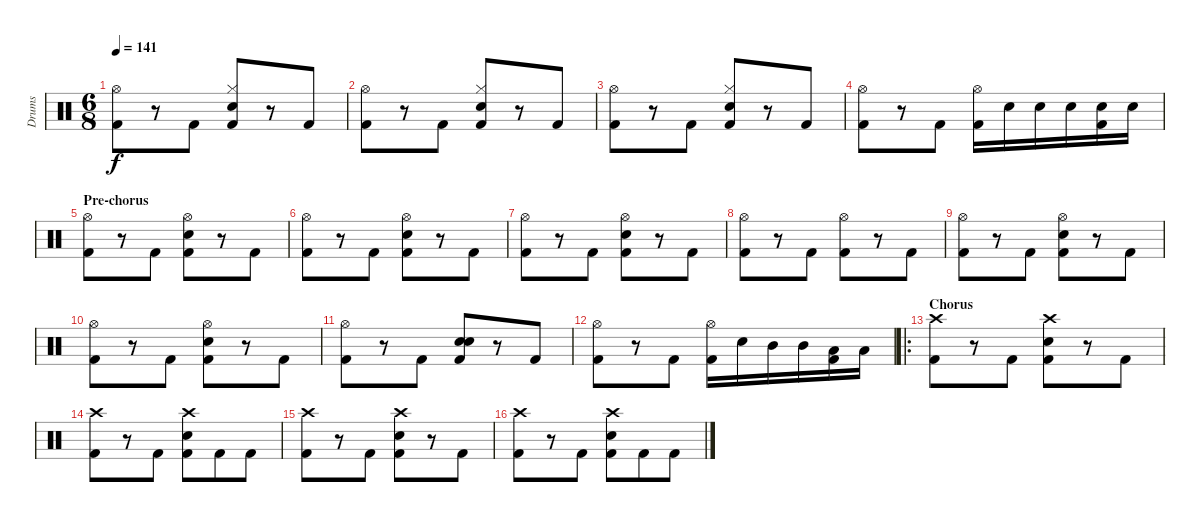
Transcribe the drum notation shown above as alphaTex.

\track ("Drums" "Drums") {instrument percussion}
\staff {score}
\articulation defaults
\ts (6 8)
\tempo 141
\clef neutral
\ks c
("Hi-Hat (open)" "Kick (hit) 2").8{dy f} r.8 "Kick (hit) 2".8 ("Hi-Hat (closed)" "Electric Snare (hit)" "Kick (hit) 2").8 r.8 "Kick (hit) 2".8 |
("Hi-Hat (open)" "Kick (hit) 2").8 r.8 "Kick (hit) 2".8 ("Hi-Hat (closed)" "Electric Snare (hit)" "Kick (hit) 2").8 r.8 "Kick (hit) 2".8 |
("Hi-Hat (open)" "Kick (hit) 2").8 r.8 "Kick (hit) 2".8 ("Hi-Hat (closed)" "Electric Snare (hit)" "Kick (hit) 2").8 r.8 "Kick (hit) 2".8 |
("Hi-Hat (open)" "Kick (hit) 2").8 r.8 "Kick (hit) 2".8 ("Hi-Hat (open)" "Kick (hit) 2").16 "Electric Snare (hit)".16 "Electric Snare (hit)".16 "Electric Snare (hit)".16 ("Electric Snare (hit)" "Kick (hit) 2").16 "Electric Snare (hit)".16 |
\section ("" "Pre-chorus")
("Hi-Hat (open)" "Kick (hit) 2").8 r.8 "Kick (hit) 2".8 ("Hi-Hat (open)" "Electric Snare (hit)" "Kick (hit) 2").8 r.8 "Kick (hit) 2".8 |
("Hi-Hat (open)" "Kick (hit) 2").8 r.8 "Kick (hit) 2".8 ("Hi-Hat (open)" "Electric Snare (hit)" "Kick (hit) 2").8 r.8 "Kick (hit) 2".8 |
("Hi-Hat (open)" "Kick (hit) 2").8 r.8 "Kick (hit) 2".8 ("Hi-Hat (open)" "Electric Snare (hit)" "Kick (hit) 2").8 r.8 "Kick (hit) 2".8 |
("Hi-Hat (open)" "Kick (hit) 2").8 r.8 "Kick (hit) 2".8 ("Hi-Hat (open)" "Kick (hit) 2").8 r.8 "Kick (hit) 2".8 |
("Hi-Hat (open)" "Kick (hit) 2").8 r.8 "Kick (hit) 2".8 ("Hi-Hat (open)" "Electric Snare (hit)" "Kick (hit) 2").8 r.8 "Kick (hit) 2".8 |
("Hi-Hat (open)" "Kick (hit) 2").8 r.8 "Kick (hit) 2".8 ("Hi-Hat (open)" "Electric Snare (hit)" "Kick (hit) 2").8 r.8 "Kick (hit) 2".8 |
("Hi-Hat (open)" "Kick (hit) 2").8 r.8 "Kick (hit) 2".8 ("Snare (hit)" "Electric Snare (hit)" "Kick (hit) 2").8 r.8 "Kick (hit) 2".8 |
("Hi-Hat (open)" "Kick (hit) 2").8 r.8 "Kick (hit) 2".8 ("Hi-Hat (open)" "Kick (hit) 2").16 "Electric Snare (hit)".16 "Mid Tom (hit)".16 "Mid Tom (hit)".16 ("Low Tom (hit)" "Kick (hit) 2").16 "Low Tom (hit)".16 |
\ro
\section ("" "Chorus")
("Crash high (hit)" "Kick (hit) 2").8 r.8 "Kick (hit) 2".8 ("Crash high (hit)" "Electric Snare (hit)" "Kick (hit) 2").8 r.8 "Kick (hit) 2".8 |
("Crash high (hit)" "Kick (hit) 2").8 r.8 "Kick (hit) 2".8 ("Crash high (hit)" "Electric Snare (hit)" "Kick (hit) 2").8 "Kick (hit) 2".8 "Kick (hit) 2".8 |
("Crash high (hit)" "Kick (hit) 2").8 r.8 "Kick (hit) 2".8 ("Crash high (hit)" "Electric Snare (hit)" "Kick (hit) 2").8 r.8 "Kick (hit) 2".8 |
("Crash high (hit)" "Kick (hit) 2").8 r.8 "Kick (hit) 2".8 ("Crash high (hit)" "Electric Snare (hit)" "Kick (hit) 2").8 "Kick (hit) 2".8 "Kick (hit) 2".8
